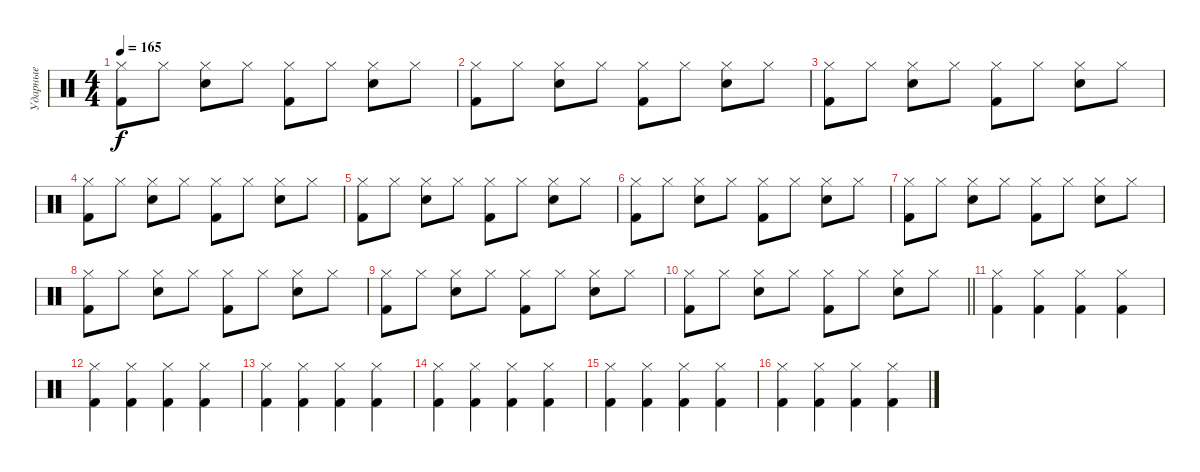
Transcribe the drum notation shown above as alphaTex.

\track ("Ударные" "Ударные") {instrument percussion}
\staff {score}
\articulation defaults
\ts (4 4)
\tempo 165
\clef neutral
\ks c
("Hi-Hat (closed)" "Kick (hit) 2").8{dy f} "Hi-Hat (closed)".8 ("Hi-Hat (closed)" "Electric Snare (hit)").8 "Hi-Hat (closed)".8 ("Hi-Hat (closed)" "Kick (hit) 2").8 "Hi-Hat (closed)".8 ("Hi-Hat (closed)" "Snare (hit) 2").8 "Hi-Hat (closed)".8 |
("Hi-Hat (closed)" "Kick (hit) 2").8 "Hi-Hat (closed)".8 ("Hi-Hat (closed)" "Electric Snare (hit)").8 "Hi-Hat (closed)".8 ("Hi-Hat (closed)" "Kick (hit) 2").8 "Hi-Hat (closed)".8 ("Hi-Hat (closed)" "Snare (hit) 2").8 "Hi-Hat (closed)".8 |
("Hi-Hat (closed)" "Kick (hit) 2").8 "Hi-Hat (closed)".8 ("Hi-Hat (closed)" "Electric Snare (hit)").8 "Hi-Hat (closed)".8 ("Hi-Hat (closed)" "Kick (hit) 2").8 "Hi-Hat (closed)".8 ("Hi-Hat (closed)" "Snare (hit) 2").8 "Hi-Hat (closed)".8 |
("Hi-Hat (closed)" "Kick (hit) 2").8 "Hi-Hat (closed)".8 ("Hi-Hat (closed)" "Electric Snare (hit)").8 "Hi-Hat (closed)".8 ("Hi-Hat (closed)" "Kick (hit) 2").8 "Hi-Hat (closed)".8 ("Hi-Hat (closed)" "Snare (hit) 2").8 "Hi-Hat (closed)".8 |
("Hi-Hat (closed)" "Kick (hit) 2").8 "Hi-Hat (closed)".8 ("Hi-Hat (closed)" "Electric Snare (hit)").8 "Hi-Hat (closed)".8 ("Hi-Hat (closed)" "Kick (hit) 2").8 "Hi-Hat (closed)".8 ("Hi-Hat (closed)" "Snare (hit) 2").8 "Hi-Hat (closed)".8 |
("Hi-Hat (closed)" "Kick (hit) 2").8 "Hi-Hat (closed)".8 ("Hi-Hat (closed)" "Electric Snare (hit)").8 "Hi-Hat (closed)".8 ("Hi-Hat (closed)" "Kick (hit) 2").8 "Hi-Hat (closed)".8 ("Hi-Hat (closed)" "Snare (hit) 2").8 "Hi-Hat (closed)".8 |
("Hi-Hat (closed)" "Kick (hit) 2").8 "Hi-Hat (closed)".8 ("Hi-Hat (closed)" "Electric Snare (hit)").8 "Hi-Hat (closed)".8 ("Hi-Hat (closed)" "Kick (hit) 2").8 "Hi-Hat (closed)".8 ("Hi-Hat (closed)" "Snare (hit) 2").8 "Hi-Hat (closed)".8 |
("Hi-Hat (closed)" "Kick (hit) 2").8 "Hi-Hat (closed)".8 ("Hi-Hat (closed)" "Electric Snare (hit)").8 "Hi-Hat (closed)".8 ("Hi-Hat (closed)" "Kick (hit) 2").8 "Hi-Hat (closed)".8 ("Hi-Hat (closed)" "Snare (hit) 2").8 "Hi-Hat (closed)".8 |
("Hi-Hat (closed)" "Kick (hit) 2").8 "Hi-Hat (closed)".8 ("Hi-Hat (closed)" "Electric Snare (hit)").8 "Hi-Hat (closed)".8 ("Hi-Hat (closed)" "Kick (hit) 2").8 "Hi-Hat (closed)".8 ("Hi-Hat (closed)" "Snare (hit) 2").8 "Hi-Hat (closed)".8 |
\barLineRight lightlight
("Hi-Hat (closed)" "Kick (hit) 2").8 "Hi-Hat (closed)".8 ("Hi-Hat (closed)" "Electric Snare (hit)").8 "Hi-Hat (closed)".8 ("Hi-Hat (closed)" "Kick (hit) 2").8 "Hi-Hat (closed)".8 ("Hi-Hat (closed)" "Snare (hit) 2").8 "Hi-Hat (closed)".8 |
("Kick (hit) 2" "Hi-Hat (closed)").4 ("Hi-Hat (closed)" "Kick (hit) 2").4 ("Hi-Hat (closed)" "Kick (hit) 2").4 ("Hi-Hat (closed)" "Kick (hit) 2").4 |
("Kick (hit) 2" "Hi-Hat (closed)").4 ("Hi-Hat (closed)" "Kick (hit) 2").4 ("Hi-Hat (closed)" "Kick (hit) 2").4 ("Hi-Hat (closed)" "Kick (hit) 2").4 |
("Kick (hit) 2" "Hi-Hat (closed)").4 ("Hi-Hat (closed)" "Kick (hit) 2").4 ("Hi-Hat (closed)" "Kick (hit) 2").4 ("Hi-Hat (closed)" "Kick (hit) 2").4 |
("Kick (hit) 2" "Hi-Hat (closed)").4 ("Hi-Hat (closed)" "Kick (hit) 2").4 ("Hi-Hat (closed)" "Kick (hit) 2").4 ("Hi-Hat (closed)" "Kick (hit) 2").4 |
("Kick (hit) 2" "Hi-Hat (closed)").4 ("Hi-Hat (closed)" "Kick (hit) 2").4 ("Hi-Hat (closed)" "Kick (hit) 2").4 ("Hi-Hat (closed)" "Kick (hit) 2").4 |
("Kick (hit) 2" "Hi-Hat (closed)").4 ("Hi-Hat (closed)" "Kick (hit) 2").4 ("Hi-Hat (closed)" "Kick (hit) 2").4 ("Hi-Hat (closed)" "Kick (hit) 2").4
